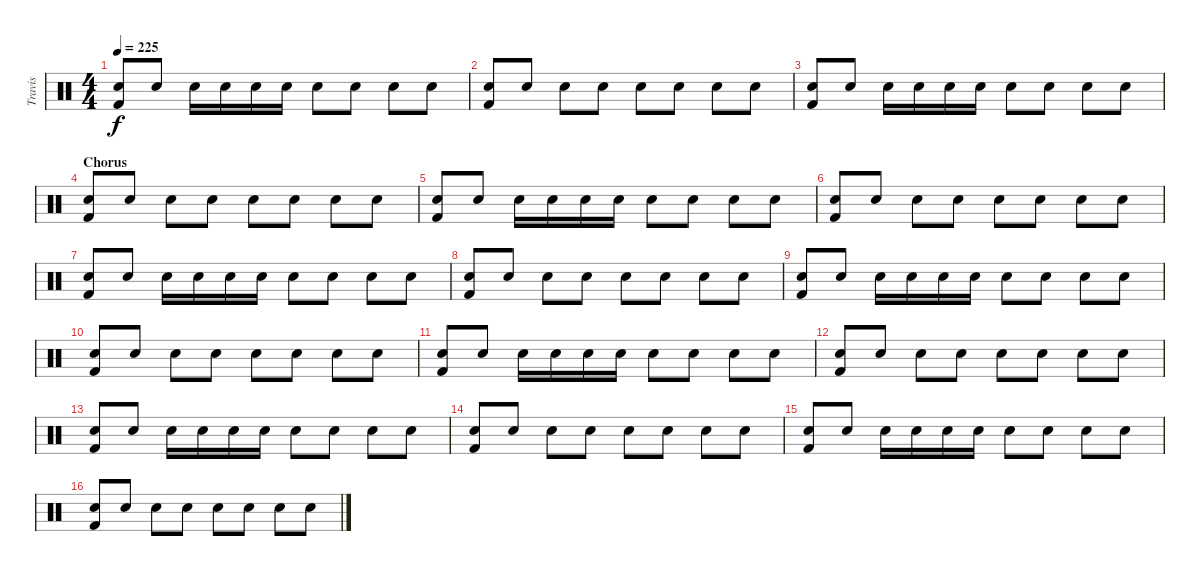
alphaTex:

\track ("Travis" "Travis") {instrument percussion}
\staff {score}
\articulation defaults
\ts (4 4)
\tempo 225
\clef neutral
\ks c
("Snare (hit) 2" "Kick (hit) 2").8{dy f} "Snare (hit) 2".8 "Snare (hit) 2".16 "Snare (hit) 2".16 "Snare (hit) 2".16 "Snare (hit) 2".16 "Electric Snare (hit)".8 "Electric Snare (hit)".8 "Snare (hit) 2".8 "Snare (hit) 2".8 |
("Snare (hit) 2" "Kick (hit) 2").8 "Snare (hit) 2".8 "Snare (hit) 2".8 "Electric Snare (hit)".8 "Snare (hit) 2".8 "Snare (hit) 2".8 "Electric Snare (hit)".8 "Snare (hit) 2".8 |
("Snare (hit) 2" "Kick (hit) 2").8 "Snare (hit) 2".8 "Snare (hit) 2".16 "Snare (hit) 2".16 "Snare (hit) 2".16 "Snare (hit) 2".16 "Electric Snare (hit)".8 "Electric Snare (hit)".8 "Snare (hit) 2".8 "Snare (hit) 2".8 |
\section ("" "Chorus")
("Snare (hit) 2" "Kick (hit) 2").8 "Snare (hit) 2".8 "Snare (hit) 2".8 "Electric Snare (hit)".8 "Snare (hit) 2".8 "Snare (hit) 2".8 "Electric Snare (hit)".8 "Snare (hit) 2".8 |
("Snare (hit) 2" "Kick (hit) 2").8 "Snare (hit) 2".8 "Snare (hit) 2".16 "Snare (hit) 2".16 "Snare (hit) 2".16 "Snare (hit) 2".16 "Electric Snare (hit)".8 "Electric Snare (hit)".8 "Snare (hit) 2".8 "Snare (hit) 2".8 |
("Snare (hit) 2" "Kick (hit) 2").8 "Snare (hit) 2".8 "Snare (hit) 2".8 "Electric Snare (hit)".8 "Snare (hit) 2".8 "Snare (hit) 2".8 "Electric Snare (hit)".8 "Snare (hit) 2".8 |
("Snare (hit) 2" "Kick (hit) 2").8 "Snare (hit) 2".8 "Snare (hit) 2".16 "Snare (hit) 2".16 "Snare (hit) 2".16 "Snare (hit) 2".16 "Electric Snare (hit)".8 "Electric Snare (hit)".8 "Snare (hit) 2".8 "Snare (hit) 2".8 |
("Snare (hit) 2" "Kick (hit) 2").8 "Snare (hit) 2".8 "Snare (hit) 2".8 "Electric Snare (hit)".8 "Snare (hit) 2".8 "Snare (hit) 2".8 "Electric Snare (hit)".8 "Snare (hit) 2".8 |
("Snare (hit) 2" "Kick (hit) 2").8 "Snare (hit) 2".8 "Snare (hit) 2".16 "Snare (hit) 2".16 "Snare (hit) 2".16 "Snare (hit) 2".16 "Electric Snare (hit)".8 "Electric Snare (hit)".8 "Snare (hit) 2".8 "Snare (hit) 2".8 |
("Snare (hit) 2" "Kick (hit) 2").8 "Snare (hit) 2".8 "Snare (hit) 2".8 "Electric Snare (hit)".8 "Snare (hit) 2".8 "Snare (hit) 2".8 "Electric Snare (hit)".8 "Snare (hit) 2".8 |
("Snare (hit) 2" "Kick (hit) 2").8 "Snare (hit) 2".8 "Snare (hit) 2".16 "Snare (hit) 2".16 "Snare (hit) 2".16 "Snare (hit) 2".16 "Electric Snare (hit)".8 "Electric Snare (hit)".8 "Snare (hit) 2".8 "Snare (hit) 2".8 |
("Snare (hit) 2" "Kick (hit) 2").8 "Snare (hit) 2".8 "Snare (hit) 2".8 "Electric Snare (hit)".8 "Snare (hit) 2".8 "Snare (hit) 2".8 "Electric Snare (hit)".8 "Snare (hit) 2".8 |
("Snare (hit) 2" "Kick (hit) 2").8 "Snare (hit) 2".8 "Snare (hit) 2".16 "Snare (hit) 2".16 "Snare (hit) 2".16 "Snare (hit) 2".16 "Electric Snare (hit)".8 "Electric Snare (hit)".8 "Snare (hit) 2".8 "Snare (hit) 2".8 |
("Snare (hit) 2" "Kick (hit) 2").8 "Snare (hit) 2".8 "Snare (hit) 2".8 "Electric Snare (hit)".8 "Snare (hit) 2".8 "Snare (hit) 2".8 "Electric Snare (hit)".8 "Snare (hit) 2".8 |
("Snare (hit) 2" "Kick (hit) 2").8 "Snare (hit) 2".8 "Snare (hit) 2".16 "Snare (hit) 2".16 "Snare (hit) 2".16 "Snare (hit) 2".16 "Electric Snare (hit)".8 "Electric Snare (hit)".8 "Snare (hit) 2".8 "Snare (hit) 2".8 |
("Snare (hit) 2" "Kick (hit) 2").8 "Snare (hit) 2".8 "Snare (hit) 2".8 "Electric Snare (hit)".8 "Snare (hit) 2".8 "Snare (hit) 2".8 "Electric Snare (hit)".8 "Snare (hit) 2".8
